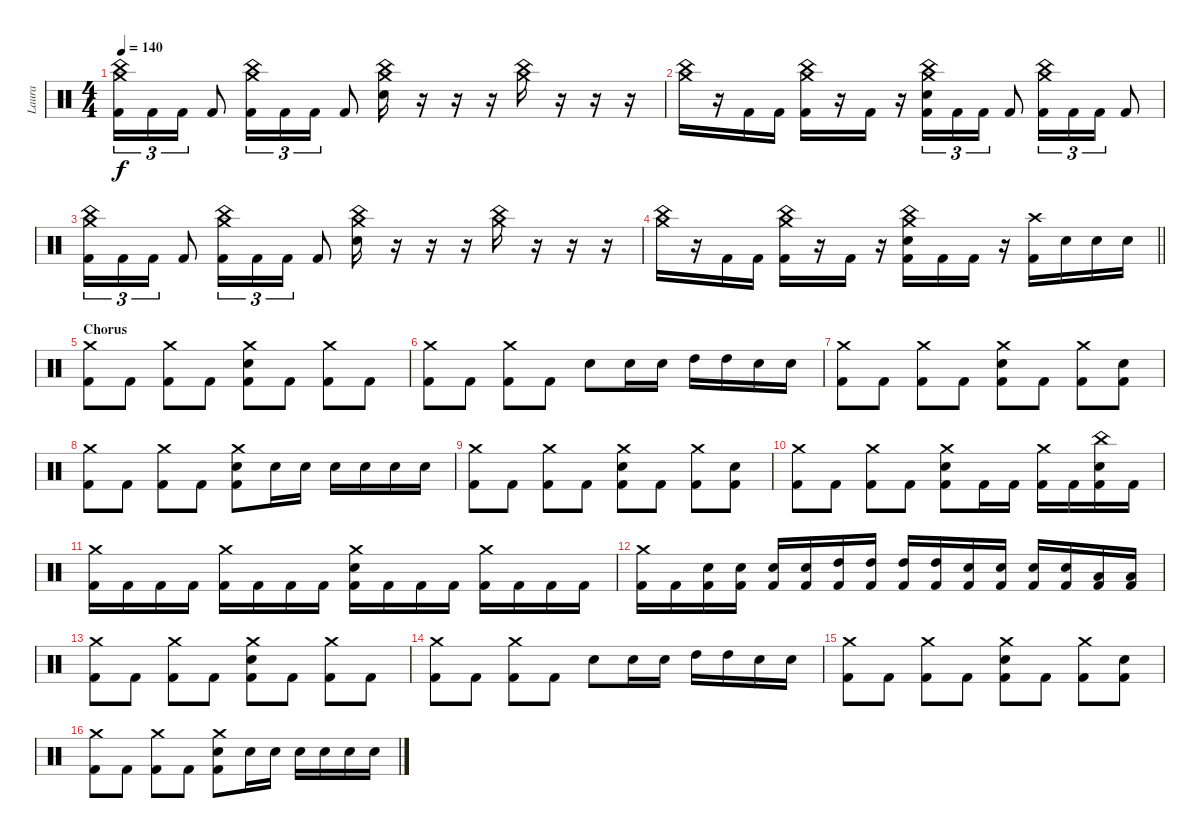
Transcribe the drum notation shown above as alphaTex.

\track ("Laura" "Laura") {instrument percussion}
\staff {score}
\articulation defaults
\ts (4 4)
\tempo 140
\clef neutral
\ks c
("Crash medium (hit)" "China (hit)" "Kick (hit) 2").16{tu (3 2) dy f} "Kick (hit) 2".16{tu (3 2)} "Kick (hit) 2".16{tu (3 2)} "Kick (hit) 2".8 ("Crash medium (hit)" "China (hit)" "Kick (hit) 2").16{tu (3 2)} "Kick (hit) 2".16{tu (3 2)} "Kick (hit) 2".16{tu (3 2)} "Kick (hit) 2".8 ("Crash medium (hit)" "China (hit)" "Electric Snare (hit)").16 r.16 r.16 r.16 ("Crash medium (hit)" "China (hit)").16 r.16 r.16 r.16 |
("Crash medium (hit)" "China (hit)").16 r.16 "Kick (hit) 2".16 "Kick (hit) 2".16 ("Crash medium (hit)" "China (hit)" "Kick (hit) 2").16 r.16 "Kick (hit) 2".16 r.16 ("Crash medium (hit)" "China (hit)" "Electric Snare (hit)" "Kick (hit) 2").16{tu (3 2)} "Kick (hit) 2".16{tu (3 2)} "Kick (hit) 2".16{tu (3 2)} "Kick (hit) 2".8 ("Crash medium (hit)" "China (hit)" "Kick (hit) 2").16{tu (3 2)} "Kick (hit) 2".16{tu (3 2)} "Kick (hit) 2".16{tu (3 2)} "Kick (hit) 2".8 |
("Crash medium (hit)" "China (hit)" "Kick (hit) 2").16{tu (3 2)} "Kick (hit) 2".16{tu (3 2)} "Kick (hit) 2".16{tu (3 2)} "Kick (hit) 2".8 ("Crash medium (hit)" "China (hit)" "Kick (hit) 2").16{tu (3 2)} "Kick (hit) 2".16{tu (3 2)} "Kick (hit) 2".16{tu (3 2)} "Kick (hit) 2".8 ("Crash medium (hit)" "China (hit)" "Electric Snare (hit)").16 r.16 r.16 r.16 ("Crash medium (hit)" "China (hit)").16 r.16 r.16 r.16 |
\barLineRight lightlight
("Crash medium (hit)" "China (hit)").16 r.16 "Kick (hit) 2".16 "Kick (hit) 2".16 ("Crash medium (hit)" "China (hit)" "Kick (hit) 2").16 r.16 "Kick (hit) 2".16 r.16 ("Crash medium (hit)" "China (hit)" "Electric Snare (hit)" "Kick (hit) 2").16 "Kick (hit) 2".16 "Kick (hit) 2".16 r.16 ("Crash high (hit)" "Kick (hit) 2").16 "Electric Snare (hit)".16 "Electric Snare (hit)".16 "Electric Snare (hit)".16 |
\section ("" "Chorus")
("Crash medium (hit)" "Kick (hit) 2").8 "Kick (hit) 2".8 ("Crash medium (hit)" "Kick (hit) 2").8 "Kick (hit) 2".8 ("Crash medium (hit)" "Electric Snare (hit)" "Kick (hit) 2").8 "Kick (hit) 2".8 ("Crash medium (hit)" "Kick (hit) 2").8 "Kick (hit) 2".8 |
("Crash medium (hit)" "Kick (hit) 2").8 "Kick (hit) 2".8 ("Crash medium (hit)" "Kick (hit) 2").8 "Kick (hit) 2".8 "Electric Snare (hit)".8 "Electric Snare (hit)".16 "Electric Snare (hit)".16 "High Tom (hit)".16 "High Tom (hit)".16 "Electric Snare (hit)".16 "Electric Snare (hit)".16 |
("Crash medium (hit)" "Kick (hit) 2").8 "Kick (hit) 2".8 ("Crash medium (hit)" "Kick (hit) 2").8 "Kick (hit) 2".8 ("Crash medium (hit)" "Electric Snare (hit)" "Kick (hit) 2").8 "Kick (hit) 2".8 ("Crash medium (hit)" "Kick (hit) 2").8 ("Electric Snare (hit)" "Kick (hit) 2").8 |
("Crash medium (hit)" "Kick (hit) 2").8 "Kick (hit) 2".8 ("Crash medium (hit)" "Kick (hit) 2").8 "Kick (hit) 2".8 ("Crash medium (hit)" "Electric Snare (hit)" "Kick (hit) 2").8 "Electric Snare (hit)".16 "Electric Snare (hit)".16 "Electric Snare (hit)".16 "Electric Snare (hit)".16 "Electric Snare (hit)".16 "Electric Snare (hit)".16 |
("Crash medium (hit)" "Kick (hit) 2").8 "Kick (hit) 2".8 ("Crash medium (hit)" "Kick (hit) 2").8 "Kick (hit) 2".8 ("Crash medium (hit)" "Electric Snare (hit)" "Kick (hit) 2").8 "Kick (hit) 2".8 ("Crash medium (hit)" "Kick (hit) 2").8 ("Electric Snare (hit)" "Kick (hit) 2").8 |
("Crash medium (hit)" "Kick (hit) 2").8 "Kick (hit) 2".8 ("Crash medium (hit)" "Kick (hit) 2").8 "Kick (hit) 2".8 ("Crash medium (hit)" "Electric Snare (hit)" "Kick (hit) 2").8 "Kick (hit) 2".16 "Kick (hit) 2".16 ("Crash medium (hit)" "Kick (hit) 2").16 "Kick (hit) 2".16 ("China (hit)" "Electric Snare (hit)" "Kick (hit) 2").16 "Kick (hit) 2".16 |
("Crash medium (hit)" "Kick (hit) 2").16 "Kick (hit) 2".16 "Kick (hit) 2".16 "Kick (hit) 2".16 ("Crash medium (hit)" "Kick (hit) 2").16 "Kick (hit) 2".16 "Kick (hit) 2".16 "Kick (hit) 2".16 ("Crash medium (hit)" "Electric Snare (hit)" "Kick (hit) 2").16 "Kick (hit) 2".16 "Kick (hit) 2".16 "Kick (hit) 2".16 ("Crash medium (hit)" "Kick (hit) 2").16 "Kick (hit) 2".16 "Kick (hit) 2".16 "Kick (hit) 2".16 |
("Crash medium (hit)" "Kick (hit) 2").16 "Kick (hit) 2".16 ("Electric Snare (hit)" "Kick (hit) 2").16 ("Electric Snare (hit)" "Kick (hit) 2").16 ("Electric Snare (hit)" "Kick (hit) 2").16 ("Electric Snare (hit)" "Kick (hit) 2").16 ("High Tom (hit)" "Kick (hit) 2").16 ("High Tom (hit)" "Kick (hit) 2").16 ("High Tom (hit)" "Kick (hit) 2").16 ("High Tom (hit)" "Kick (hit) 2").16 ("Electric Snare (hit)" "Kick (hit) 2").16 ("Electric Snare (hit)" "Kick (hit) 2").16 ("Electric Snare (hit)" "Kick (hit) 2").16 ("Electric Snare (hit)" "Kick (hit) 2").16 ("Low Floor Tom (hit)" "Kick (hit) 2").16 ("Low Floor Tom (hit)" "Kick (hit) 2").16 |
("Crash medium (hit)" "Kick (hit) 2").8 "Kick (hit) 2".8 ("Crash medium (hit)" "Kick (hit) 2").8 "Kick (hit) 2".8 ("Crash medium (hit)" "Electric Snare (hit)" "Kick (hit) 2").8 "Kick (hit) 2".8 ("Crash medium (hit)" "Kick (hit) 2").8 "Kick (hit) 2".8 |
("Crash medium (hit)" "Kick (hit) 2").8 "Kick (hit) 2".8 ("Crash medium (hit)" "Kick (hit) 2").8 "Kick (hit) 2".8 "Electric Snare (hit)".8 "Electric Snare (hit)".16 "Electric Snare (hit)".16 "High Tom (hit)".16 "High Tom (hit)".16 "Electric Snare (hit)".16 "Electric Snare (hit)".16 |
("Crash medium (hit)" "Kick (hit) 2").8 "Kick (hit) 2".8 ("Crash medium (hit)" "Kick (hit) 2").8 "Kick (hit) 2".8 ("Crash medium (hit)" "Electric Snare (hit)" "Kick (hit) 2").8 "Kick (hit) 2".8 ("Crash medium (hit)" "Kick (hit) 2").8 ("Electric Snare (hit)" "Kick (hit) 2").8 |
("Crash medium (hit)" "Kick (hit) 2").8 "Kick (hit) 2".8 ("Crash medium (hit)" "Kick (hit) 2").8 "Kick (hit) 2".8 ("Crash medium (hit)" "Electric Snare (hit)" "Kick (hit) 2").8 "Electric Snare (hit)".16 "Electric Snare (hit)".16 "Electric Snare (hit)".16 "Electric Snare (hit)".16 "Electric Snare (hit)".16 "Electric Snare (hit)".16
